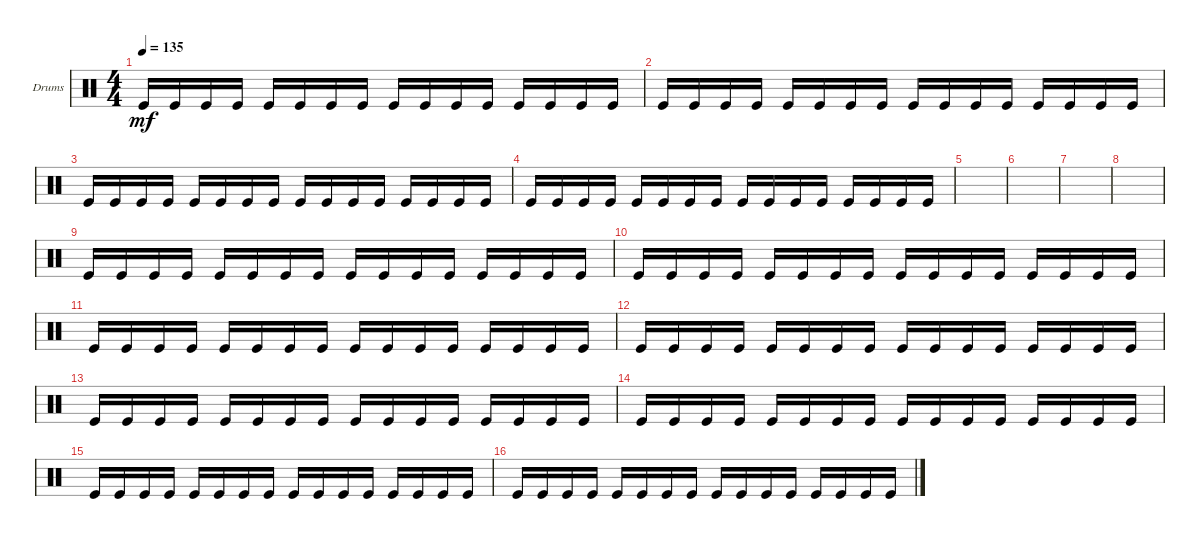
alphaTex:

\defaultSystemsLayout 4
\bracketExtendMode groupsimilarinstruments
\firstSystemTrackNameOrientation horizontal
\otherSystemsTrackNameOrientation horizontal
\track ("Background-Bass" "Drums") {instrument percussion}
\staff {score}
\articulation defaults
\ts (4 4)
\tempo 135
\clef neutral
\scale
0.333333
\ks c "Kick (hit)".16{dy mf} "Kick (hit)".16 "Kick (hit)".16 "Kick (hit)".16 "Kick (hit)".16 "Kick (hit)".16 "Kick (hit)".16 "Kick (hit)".16 "Kick (hit)".16 "Kick (hit)".16 "Kick (hit)".16 "Kick (hit)".16 "Kick (hit)".16 "Kick (hit)".16 "Kick (hit)".16 "Kick (hit)".16
|
\scale
0.333333 "Kick (hit)".16 "Kick (hit)".16 "Kick (hit)".16 "Kick (hit)".16 "Kick (hit)".16 "Kick (hit)".16 "Kick (hit)".16 "Kick (hit)".16 "Kick (hit)".16 "Kick (hit)".16 "Kick (hit)".16 "Kick (hit)".16 "Kick (hit)".16 "Kick (hit)".16 "Kick (hit)".16 "Kick (hit)".16 |
\scale
0.333333 "Kick (hit)".16 "Kick (hit)".16 "Kick (hit)".16 "Kick (hit)".16 "Kick (hit)".16 "Kick (hit)".16 "Kick (hit)".16 "Kick (hit)".16 "Kick (hit)".16 "Kick (hit)".16 "Kick (hit)".16 "Kick (hit)".16 "Kick (hit)".16 "Kick (hit)".16 "Kick (hit)".16 "Kick (hit)".16 |
\scale
0.333333 "Kick (hit)".16 "Kick (hit)".16 "Kick (hit)".16 "Kick (hit)".16 "Kick (hit)".16 "Kick (hit)".16 "Kick (hit)".16 "Kick (hit)".16 "Kick (hit)".16 "Kick (hit)".16 "Kick (hit)".16 "Kick (hit)".16 "Kick (hit)".16 "Kick (hit)".16 "Kick (hit)".16 "Kick (hit)".16 |
\scale
0.333333 |
\scale
0.333333 |
\scale
0.333333 |
\scale
0.333333 |
\scale
0.333333 "Kick (hit)".16 "Kick (hit)".16 "Kick (hit)".16 "Kick (hit)".16 "Kick (hit)".16 "Kick (hit)".16 "Kick (hit)".16 "Kick (hit)".16 "Kick (hit)".16 "Kick (hit)".16 "Kick (hit)".16 "Kick (hit)".16 "Kick (hit)".16 "Kick (hit)".16 "Kick (hit)".16 "Kick (hit)".16 |
\scale
0.333333 "Kick (hit)".16 "Kick (hit)".16 "Kick (hit)".16 "Kick (hit)".16 "Kick (hit)".16 "Kick (hit)".16 "Kick (hit)".16 "Kick (hit)".16 "Kick (hit)".16 "Kick (hit)".16 "Kick (hit)".16 "Kick (hit)".16 "Kick (hit)".16 "Kick (hit)".16 "Kick (hit)".16 "Kick (hit)".16 |
\scale
0.333333 "Kick (hit)".16 "Kick (hit)".16 "Kick (hit)".16 "Kick (hit)".16 "Kick (hit)".16 "Kick (hit)".16 "Kick (hit)".16 "Kick (hit)".16 "Kick (hit)".16 "Kick (hit)".16 "Kick (hit)".16 "Kick (hit)".16 "Kick (hit)".16 "Kick (hit)".16 "Kick (hit)".16 "Kick (hit)".16 |
\scale
0.333333 "Kick (hit)".16 "Kick (hit)".16 "Kick (hit)".16 "Kick (hit)".16 "Kick (hit)".16 "Kick (hit)".16 "Kick (hit)".16 "Kick (hit)".16 "Kick (hit)".16 "Kick (hit)".16 "Kick (hit)".16 "Kick (hit)".16 "Kick (hit)".16 "Kick (hit)".16 "Kick (hit)".16 "Kick (hit)".16 |
\scale
0.333333 "Kick (hit)".16 "Kick (hit)".16 "Kick (hit)".16 "Kick (hit)".16 "Kick (hit)".16 "Kick (hit)".16 "Kick (hit)".16 "Kick (hit)".16 "Kick (hit)".16 "Kick (hit)".16 "Kick (hit)".16 "Kick (hit)".16 "Kick (hit)".16 "Kick (hit)".16 "Kick (hit)".16 "Kick (hit)".16 |
\scale
0.333333 "Kick (hit)".16 "Kick (hit)".16 "Kick (hit)".16 "Kick (hit)".16 "Kick (hit)".16 "Kick (hit)".16 "Kick (hit)".16 "Kick (hit)".16 "Kick (hit)".16 "Kick (hit)".16 "Kick (hit)".16 "Kick (hit)".16 "Kick (hit)".16 "Kick (hit)".16 "Kick (hit)".16 "Kick (hit)".16 |
\scale
0.333333 "Kick (hit)".16 "Kick (hit)".16 "Kick (hit)".16 "Kick (hit)".16 "Kick (hit)".16 "Kick (hit)".16 "Kick (hit)".16 "Kick (hit)".16 "Kick (hit)".16 "Kick (hit)".16 "Kick (hit)".16 "Kick (hit)".16 "Kick (hit)".16 "Kick (hit)".16 "Kick (hit)".16 "Kick (hit)".16 |
\scale
0.333333 "Kick (hit)".16 "Kick (hit)".16 "Kick (hit)".16 "Kick (hit)".16 "Kick (hit)".16 "Kick (hit)".16 "Kick (hit)".16 "Kick (hit)".16 "Kick (hit)".16 "Kick (hit)".16 "Kick (hit)".16 "Kick (hit)".16 "Kick (hit)".16 "Kick (hit)".16 "Kick (hit)".16 "Kick (hit)".16
